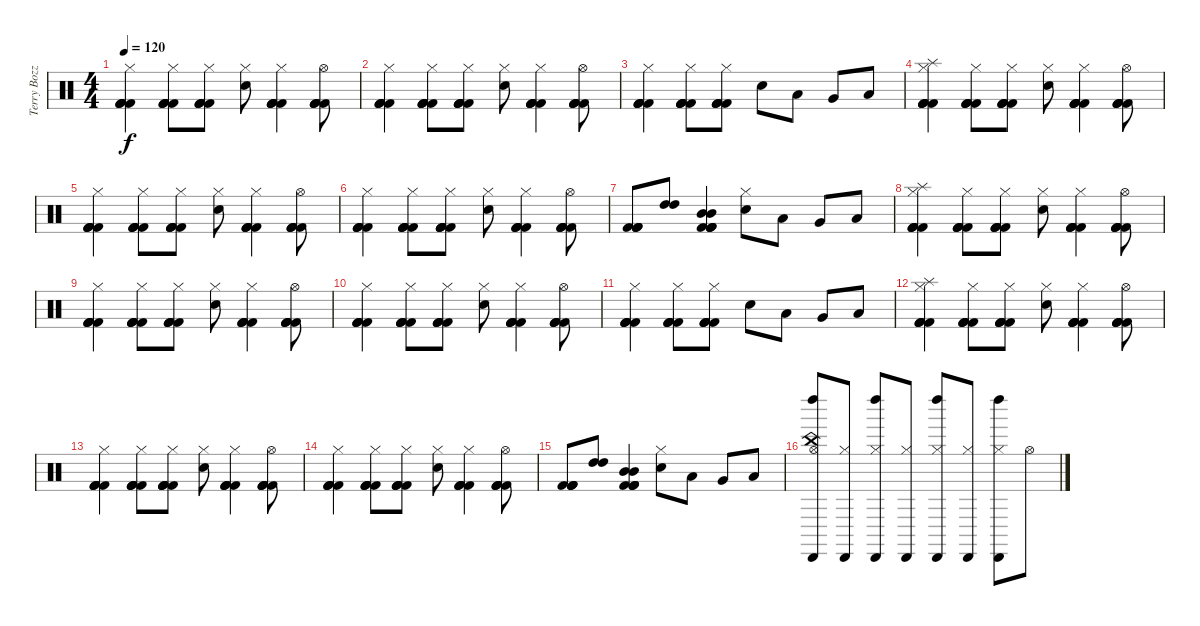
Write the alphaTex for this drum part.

\track ("Terry Bozzio" "Terry Bozz") {instrument percussion}
\staff {score}
\articulation defaults
\ts (4 4)
\tempo 120
\clef neutral
\ks c
("Hi-Hat (closed)" "Kick (hit) 2" "Kick (hit) 2" "Kick (hit) 2" "Kick (hit) 2").4{dy f} ("Hi-Hat (closed)" "Kick (hit) 2" "Kick (hit) 2" "Kick (hit) 2" "Kick (hit) 2").8 ("Hi-Hat (closed)" "Kick (hit) 2" "Kick (hit) 2" "Kick (hit) 2" "Kick (hit) 2").8 ("Hi-Hat (closed)" "Snare (hit) 2").8 ("Hi-Hat (closed)" "Kick (hit) 2" "Kick (hit) 2" "Kick (hit) 2" "Kick (hit) 2").4 ("Hi-Hat (open)" "Kick (hit) 2" "Kick (hit) 2" "Kick (hit) 2" "Kick (hit) 2").8 |
("Hi-Hat (closed)" "Kick (hit) 2" "Kick (hit) 2" "Kick (hit) 2" "Kick (hit) 2").4 ("Hi-Hat (closed)" "Kick (hit) 2" "Kick (hit) 2" "Kick (hit) 2" "Kick (hit) 2").8 ("Hi-Hat (closed)" "Kick (hit) 2" "Kick (hit) 2" "Kick (hit) 2" "Kick (hit) 2").8 ("Hi-Hat (closed)" "Snare (hit) 2").8 ("Hi-Hat (closed)" "Kick (hit) 2" "Kick (hit) 2" "Kick (hit) 2" "Kick (hit) 2").4 ("Hi-Hat (open)" "Kick (hit) 2" "Kick (hit) 2" "Kick (hit) 2" "Kick (hit) 2").8 |
("Hi-Hat (closed)" "Kick (hit) 2" "Kick (hit) 2" "Kick (hit) 2" "Kick (hit) 2").4 ("Hi-Hat (closed)" "Kick (hit) 2" "Kick (hit) 2" "Kick (hit) 2" "Kick (hit) 2").8 ("Hi-Hat (closed)" "Kick (hit) 2" "Kick (hit) 2" "Kick (hit) 2" "Kick (hit) 2").8 "Snare (hit) 2".8 "Low Tom (hit)".8 "Very Low Tom (hit)".8 "Low Floor Tom (hit)".8 |
("Splash (hit)" "Hi-Hat (closed)" "Kick (hit) 2" "Kick (hit) 2" "Kick (hit) 2" "Kick (hit) 2").4 ("Hi-Hat (closed)" "Kick (hit) 2" "Kick (hit) 2" "Kick (hit) 2" "Kick (hit) 2").8 ("Hi-Hat (closed)" "Kick (hit) 2" "Kick (hit) 2" "Kick (hit) 2" "Kick (hit) 2").8 ("Hi-Hat (closed)" "Snare (hit) 2").8 ("Hi-Hat (closed)" "Kick (hit) 2" "Kick (hit) 2" "Kick (hit) 2" "Kick (hit) 2").4 ("Hi-Hat (open)" "Kick (hit) 2" "Kick (hit) 2" "Kick (hit) 2" "Kick (hit) 2").8 |
("Hi-Hat (closed)" "Kick (hit) 2" "Kick (hit) 2" "Kick (hit) 2" "Kick (hit) 2").4 ("Hi-Hat (closed)" "Kick (hit) 2" "Kick (hit) 2" "Kick (hit) 2" "Kick (hit) 2").8 ("Hi-Hat (closed)" "Kick (hit) 2" "Kick (hit) 2" "Kick (hit) 2" "Kick (hit) 2").8 ("Hi-Hat (closed)" "Snare (hit) 2").8 ("Hi-Hat (closed)" "Kick (hit) 2" "Kick (hit) 2" "Kick (hit) 2" "Kick (hit) 2").4 ("Hi-Hat (open)" "Kick (hit) 2" "Kick (hit) 2" "Kick (hit) 2" "Kick (hit) 2").8 |
("Hi-Hat (closed)" "Kick (hit) 2" "Kick (hit) 2" "Kick (hit) 2" "Kick (hit) 2").4 ("Hi-Hat (closed)" "Kick (hit) 2" "Kick (hit) 2" "Kick (hit) 2" "Kick (hit) 2").8 ("Hi-Hat (closed)" "Kick (hit) 2" "Kick (hit) 2" "Kick (hit) 2" "Kick (hit) 2").8 ("Hi-Hat (closed)" "Snare (hit) 2").8 ("Hi-Hat (closed)" "Kick (hit) 2" "Kick (hit) 2" "Kick (hit) 2" "Kick (hit) 2").4 ("Hi-Hat (open)" "Kick (hit) 2" "Kick (hit) 2" "Kick (hit) 2" "Kick (hit) 2").8 |
("Kick (hit) 2" "Kick (hit) 2" "Kick (hit) 2" "Kick (hit) 2").8 ("High Tom (hit)" "High Tom (hit)").8 ("Mid Tom (hit)" "Mid Tom (hit)" "Kick (hit) 2" "Kick (hit) 2" "Kick (hit) 2" "Kick (hit) 2").4 ("Hi-Hat (closed)" "Snare (hit) 2").8 "Low Tom (hit)".8 "Very Low Tom (hit)".8 "Low Floor Tom (hit)".8 |
("Splash (hit)" "Hi-Hat (closed)" "Kick (hit) 2" "Kick (hit) 2" "Kick (hit) 2" "Kick (hit) 2").4 ("Hi-Hat (closed)" "Kick (hit) 2" "Kick (hit) 2" "Kick (hit) 2" "Kick (hit) 2").8 ("Hi-Hat (closed)" "Kick (hit) 2" "Kick (hit) 2" "Kick (hit) 2" "Kick (hit) 2").8 ("Hi-Hat (closed)" "Snare (hit) 2").8 ("Hi-Hat (closed)" "Kick (hit) 2" "Kick (hit) 2" "Kick (hit) 2" "Kick (hit) 2").4 ("Hi-Hat (open)" "Kick (hit) 2" "Kick (hit) 2" "Kick (hit) 2" "Kick (hit) 2").8 |
("Hi-Hat (closed)" "Kick (hit) 2" "Kick (hit) 2" "Kick (hit) 2" "Kick (hit) 2").4 ("Hi-Hat (closed)" "Kick (hit) 2" "Kick (hit) 2" "Kick (hit) 2" "Kick (hit) 2").8 ("Hi-Hat (closed)" "Kick (hit) 2" "Kick (hit) 2" "Kick (hit) 2" "Kick (hit) 2").8 ("Hi-Hat (closed)" "Snare (hit) 2").8 ("Hi-Hat (closed)" "Kick (hit) 2" "Kick (hit) 2" "Kick (hit) 2" "Kick (hit) 2").4 ("Hi-Hat (open)" "Kick (hit) 2" "Kick (hit) 2" "Kick (hit) 2" "Kick (hit) 2").8 |
("Hi-Hat (closed)" "Kick (hit) 2" "Kick (hit) 2" "Kick (hit) 2" "Kick (hit) 2").4 ("Hi-Hat (closed)" "Kick (hit) 2" "Kick (hit) 2" "Kick (hit) 2" "Kick (hit) 2").8 ("Hi-Hat (closed)" "Kick (hit) 2" "Kick (hit) 2" "Kick (hit) 2" "Kick (hit) 2").8 ("Hi-Hat (closed)" "Snare (hit) 2").8 ("Hi-Hat (closed)" "Kick (hit) 2" "Kick (hit) 2" "Kick (hit) 2" "Kick (hit) 2").4 ("Hi-Hat (open)" "Kick (hit) 2" "Kick (hit) 2" "Kick (hit) 2" "Kick (hit) 2").8 |
("Hi-Hat (closed)" "Kick (hit) 2" "Kick (hit) 2" "Kick (hit) 2" "Kick (hit) 2").4 ("Hi-Hat (closed)" "Kick (hit) 2" "Kick (hit) 2" "Kick (hit) 2" "Kick (hit) 2").8 ("Hi-Hat (closed)" "Kick (hit) 2" "Kick (hit) 2" "Kick (hit) 2" "Kick (hit) 2").8 "Snare (hit) 2".8 "Low Tom (hit)".8 "Very Low Tom (hit)".8 "Low Floor Tom (hit)".8 |
("Splash (hit)" "Hi-Hat (closed)" "Kick (hit) 2" "Kick (hit) 2" "Kick (hit) 2" "Kick (hit) 2").4 ("Hi-Hat (closed)" "Kick (hit) 2" "Kick (hit) 2" "Kick (hit) 2" "Kick (hit) 2").8 ("Hi-Hat (closed)" "Kick (hit) 2" "Kick (hit) 2" "Kick (hit) 2" "Kick (hit) 2").8 ("Hi-Hat (closed)" "Snare (hit) 2").8 ("Hi-Hat (closed)" "Kick (hit) 2" "Kick (hit) 2" "Kick (hit) 2" "Kick (hit) 2").4 ("Hi-Hat (open)" "Kick (hit) 2" "Kick (hit) 2" "Kick (hit) 2" "Kick (hit) 2").8 |
("Hi-Hat (closed)" "Kick (hit) 2" "Kick (hit) 2" "Kick (hit) 2" "Kick (hit) 2").4 ("Hi-Hat (closed)" "Kick (hit) 2" "Kick (hit) 2" "Kick (hit) 2" "Kick (hit) 2").8 ("Hi-Hat (closed)" "Kick (hit) 2" "Kick (hit) 2" "Kick (hit) 2" "Kick (hit) 2").8 ("Hi-Hat (closed)" "Snare (hit) 2").8 ("Hi-Hat (closed)" "Kick (hit) 2" "Kick (hit) 2" "Kick (hit) 2" "Kick (hit) 2").4 ("Hi-Hat (open)" "Kick (hit) 2" "Kick (hit) 2" "Kick (hit) 2" "Kick (hit) 2").8 |
("Hi-Hat (closed)" "Kick (hit) 2" "Kick (hit) 2" "Kick (hit) 2" "Kick (hit) 2").4 ("Hi-Hat (closed)" "Kick (hit) 2" "Kick (hit) 2" "Kick (hit) 2" "Kick (hit) 2").8 ("Hi-Hat (closed)" "Kick (hit) 2" "Kick (hit) 2" "Kick (hit) 2" "Kick (hit) 2").8 ("Hi-Hat (closed)" "Snare (hit) 2").8 ("Hi-Hat (closed)" "Kick (hit) 2" "Kick (hit) 2" "Kick (hit) 2" "Kick (hit) 2").4 ("Hi-Hat (open)" "Kick (hit) 2" "Kick (hit) 2" "Kick (hit) 2" "Kick (hit) 2").8 |
("Kick (hit) 2" "Kick (hit) 2" "Kick (hit) 2" "Kick (hit) 2").8 ("High Tom (hit)" "High Tom (hit)").8 ("Mid Tom (hit)" "Mid Tom (hit)" "Kick (hit) 2" "Kick (hit) 2" "Kick (hit) 2" "Kick (hit) 2").4 ("Hi-Hat (closed)" "Snare (hit) 2").8 "Low Tom (hit)".8 "Very Low Tom (hit)".8 "Low Floor Tom (hit)".8 |
("China (hit)" "Hi-Hat (open)" "Cabasa (hit)" "Left Maraca (hit)").8{volume 10} ("Hi-Hat (closed)" "Cabasa (hit)").8 ("Hi-Hat (closed)" "Cabasa (hit)" "Left Maraca (hit)").8 ("Hi-Hat (closed)" "Cabasa (hit)").8 ("Hi-Hat (closed)" "Cabasa (hit)" "Left Maraca (hit)").8 ("Hi-Hat (closed)" "Cabasa (hit)").8 ("Hi-Hat (closed)" "Cabasa (hit)" "Left Maraca (hit)").8 "Hi-Hat (open)".8
